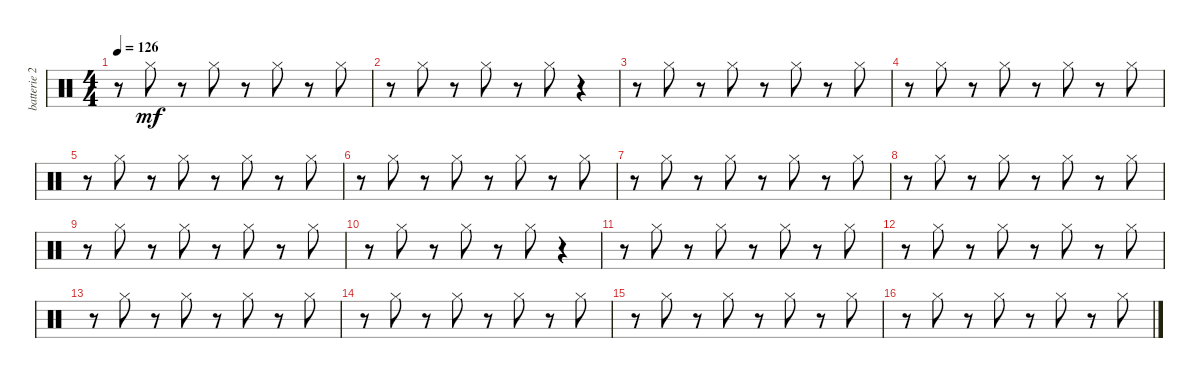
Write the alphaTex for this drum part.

\track ("batterie 2" "batterie 2") {instrument percussion}
\staff {score}
\articulation defaults
\ts (4 4)
\tempo 126
\clef neutral
\ks c
r.8{dy mf} "Hi-Hat (closed)".8 r.8 "Hi-Hat (closed)".8 r.8 "Hi-Hat (closed)".8 r.8 "Hi-Hat (closed)".8 |
r.8 "Hi-Hat (closed)".8 r.8 "Hi-Hat (closed)".8 r.8 "Hi-Hat (closed)".8 r.4 |
r.8 "Hi-Hat (closed)".8 r.8 "Hi-Hat (closed)".8 r.8 "Hi-Hat (closed)".8 r.8 "Hi-Hat (closed)".8 |
r.8 "Hi-Hat (closed)".8 r.8 "Hi-Hat (closed)".8 r.8 "Hi-Hat (closed)".8 r.8 "Hi-Hat (closed)".8 |
r.8 "Hi-Hat (closed)".8 r.8 "Hi-Hat (closed)".8 r.8 "Hi-Hat (closed)".8 r.8 "Hi-Hat (closed)".8 |
r.8 "Hi-Hat (closed)".8 r.8 "Hi-Hat (closed)".8 r.8 "Hi-Hat (closed)".8 r.8 "Hi-Hat (closed)".8 |
r.8 "Hi-Hat (closed)".8 r.8 "Hi-Hat (closed)".8 r.8 "Hi-Hat (closed)".8 r.8 "Hi-Hat (closed)".8 |
r.8 "Hi-Hat (closed)".8 r.8 "Hi-Hat (closed)".8 r.8 "Hi-Hat (closed)".8 r.8 "Hi-Hat (closed)".8 |
r.8 "Hi-Hat (closed)".8 r.8 "Hi-Hat (closed)".8 r.8 "Hi-Hat (closed)".8 r.8 "Hi-Hat (closed)".8 |
r.8 "Hi-Hat (closed)".8 r.8 "Hi-Hat (closed)".8 r.8 "Hi-Hat (closed)".8 r.4 |
r.8 "Hi-Hat (closed)".8 r.8 "Hi-Hat (closed)".8 r.8 "Hi-Hat (closed)".8 r.8 "Hi-Hat (closed)".8 |
r.8 "Hi-Hat (closed)".8 r.8 "Hi-Hat (closed)".8 r.8 "Hi-Hat (closed)".8 r.8 "Hi-Hat (closed)".8 |
r.8 "Hi-Hat (closed)".8 r.8 "Hi-Hat (closed)".8 r.8 "Hi-Hat (closed)".8 r.8 "Hi-Hat (closed)".8 |
r.8 "Hi-Hat (closed)".8 r.8 "Hi-Hat (closed)".8 r.8 "Hi-Hat (closed)".8 r.8 "Hi-Hat (closed)".8 |
r.8 "Hi-Hat (closed)".8 r.8 "Hi-Hat (closed)".8 r.8 "Hi-Hat (closed)".8 r.8 "Hi-Hat (closed)".8 |
r.8 "Hi-Hat (closed)".8 r.8 "Hi-Hat (closed)".8 r.8 "Hi-Hat (closed)".8 r.8 "Hi-Hat (closed)".8
